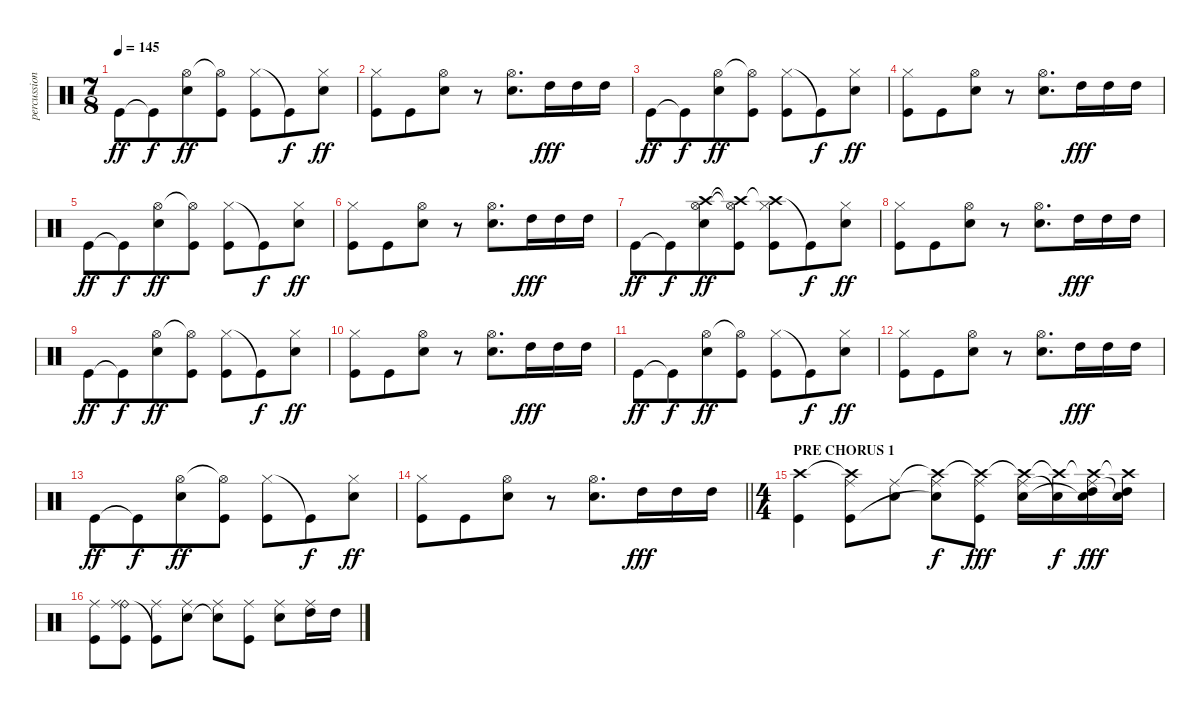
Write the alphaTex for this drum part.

\track ("percussion" "percussion") {instrument percussion}
\staff {score}
\articulation defaults
\ts (7 8)
\tempo 145
\clef neutral
\ks c "Kick (hit)".8{dy ff} "Kick (hit)"{t}.8{dy f}
("Hi-Hat (open)" "Electric Snare (hit)").8{dy ff} ("Hi-Hat (open)"{t} "Kick (hit)").8 ("Hi-Hat (closed)" "Kick (hit)").8 "Kick (hit)"{t}.8{dy f} ("Hi-Hat (closed)" "Electric Snare (hit)").8{dy ff} |
("Hi-Hat (closed)" "Kick (hit)").8 "Kick (hit)".8 ("Hi-Hat (open)" "Electric Snare (hit)").8 r.8 ("Hi-Hat (open)" "Electric Snare (hit)").8{d} "High Tom (hit)".16{dy fff} "High Tom (hit)".16 "High Tom (hit)".16 |
"Kick (hit)".8{dy ff} "Kick (hit)"{t}.8{dy f} ("Hi-Hat (open)" "Electric Snare (hit)").8{dy ff} ("Hi-Hat (open)"{t} "Kick (hit)").8 ("Hi-Hat (closed)" "Kick (hit)").8 "Kick (hit)"{t}.8{dy f} ("Hi-Hat (closed)" "Electric Snare (hit)").8{dy ff} |
("Hi-Hat (closed)" "Kick (hit)").8 "Kick (hit)".8 ("Hi-Hat (open)" "Electric Snare (hit)").8 r.8 ("Hi-Hat (open)" "Electric Snare (hit)").8{d} "High Tom (hit)".16{dy fff} "High Tom (hit)".16 "High Tom (hit)".16 |
"Kick (hit)".8{dy ff} "Kick (hit)"{t}.8{dy f} ("Hi-Hat (open)" "Electric Snare (hit)").8{dy ff} ("Hi-Hat (open)"{t} "Kick (hit)").8 ("Hi-Hat (closed)" "Kick (hit)").8 "Kick (hit)"{t}.8{dy f} ("Hi-Hat (closed)" "Electric Snare (hit)").8{dy ff} |
("Hi-Hat (closed)" "Kick (hit)").8 "Kick (hit)".8 ("Hi-Hat (open)" "Electric Snare (hit)").8 r.8 ("Hi-Hat (open)" "Electric Snare (hit)").8{d} "High Tom (hit)".16{dy fff} "High Tom (hit)".16 "High Tom (hit)".16 |
"Kick (hit)".8{dy ff} "Kick (hit)"{t}.8{dy f} ("Crash high (hit)" "Hi-Hat (open)" "Electric Snare (hit)").8{dy ff} ("Crash high (hit)"{t} "Hi-Hat (open)"{t} "Kick (hit)").8 ("Crash high (hit)"{t} "Hi-Hat (closed)" "Kick (hit)").8 "Kick (hit)"{t}.8{dy f} ("Hi-Hat (closed)" "Electric Snare (hit)").8{dy ff} |
("Hi-Hat (closed)" "Kick (hit)").8 "Kick (hit)".8 ("Hi-Hat (open)" "Electric Snare (hit)").8 r.8 ("Hi-Hat (open)" "Electric Snare (hit)").8{d} "High Tom (hit)".16{dy fff} "High Tom (hit)".16 "High Tom (hit)".16 |
"Kick (hit)".8{dy ff} "Kick (hit)"{t}.8{dy f} ("Hi-Hat (open)" "Electric Snare (hit)").8{dy ff} ("Hi-Hat (open)"{t} "Kick (hit)").8 ("Hi-Hat (closed)" "Kick (hit)").8 "Kick (hit)"{t}.8{dy f} ("Hi-Hat (closed)" "Electric Snare (hit)").8{dy ff} |
("Hi-Hat (closed)" "Kick (hit)").8 "Kick (hit)".8 ("Hi-Hat (open)" "Electric Snare (hit)").8 r.8 ("Hi-Hat (open)" "Electric Snare (hit)").8{d} "High Tom (hit)".16{dy fff} "High Tom (hit)".16 "High Tom (hit)".16 |
"Kick (hit)".8{dy ff} "Kick (hit)"{t}.8{dy f} ("Hi-Hat (open)" "Electric Snare (hit)").8{dy ff} ("Hi-Hat (open)"{t} "Kick (hit)").8 ("Hi-Hat (closed)" "Kick (hit)").8 "Kick (hit)"{t}.8{dy f} ("Hi-Hat (closed)" "Electric Snare (hit)").8{dy ff} |
("Hi-Hat (closed)" "Kick (hit)").8 "Kick (hit)".8 ("Hi-Hat (open)" "Electric Snare (hit)").8 r.8 ("Hi-Hat (open)" "Electric Snare (hit)").8{d} "High Tom (hit)".16{dy fff} "High Tom (hit)".16 "High Tom (hit)".16 |
"Kick (hit)".8{dy ff} "Kick (hit)"{t}.8{dy f} ("Hi-Hat (open)" "Electric Snare (hit)").8{dy ff} ("Hi-Hat (open)"{t} "Kick (hit)").8 ("Hi-Hat (closed)" "Kick (hit)").8 "Kick (hit)"{t}.8{dy f} ("Hi-Hat (closed)" "Electric Snare (hit)").8{dy ff} |
\barLineRight lightlight
("Hi-Hat (closed)" "Kick (hit)").8 "Kick (hit)".8 ("Hi-Hat (open)" "Electric Snare (hit)").8 r.8 ("Hi-Hat (open)" "Electric Snare (hit)").8{d} "High Tom (hit)".16{dy fff} "High Tom (hit)".16 "High Tom (hit)".16 |
\ts (4 4)
\section ("" "PRE CHORUS 1")
("Crash high (hit)" "Kick (hit)").4 ("Crash high (hit)"{t} "Ride (middle)" "Kick (hit)").8 ("Ride (middle)" "Electric Snare (hit)").8 ("Crash high (hit)"{t} "Ride (middle)" "Electric Snare (hit)"{t}).8{dy f} ("Crash high (hit)"{t} "Ride (middle)" "Kick (hit)").8{dy fff} ("Crash high (hit)"{t} "Ride (middle)" "Electric Snare (hit)").16 ("Crash high (hit)"{t} "Electric Snare (hit)"{t}).16{dy f} ("Crash high (hit)"{t} "Ride (middle)" "Electric Snare (hit)"{t} "High Tom (hit)").16{dy fff} ("Crash high (hit)"{t} "Electric Snare (hit)"{t} "High Tom (hit)").16 |
("Ride (middle)" "Kick (hit)").8 ("Ride (bell)" "Ride (middle)" "Kick (hit)").8 ("Ride (middle)" "Kick (hit)"{t}).8 ("Ride (middle)" "Electric Snare (hit)").8 ("Ride (middle)" "Electric Snare (hit)"{t}).8 ("Ride (middle)" "Kick (hit)").8 ("Ride (middle)" "Electric Snare (hit)").8 ("Ride (middle)" "High Tom (hit)").16 "High Tom (hit)".16
